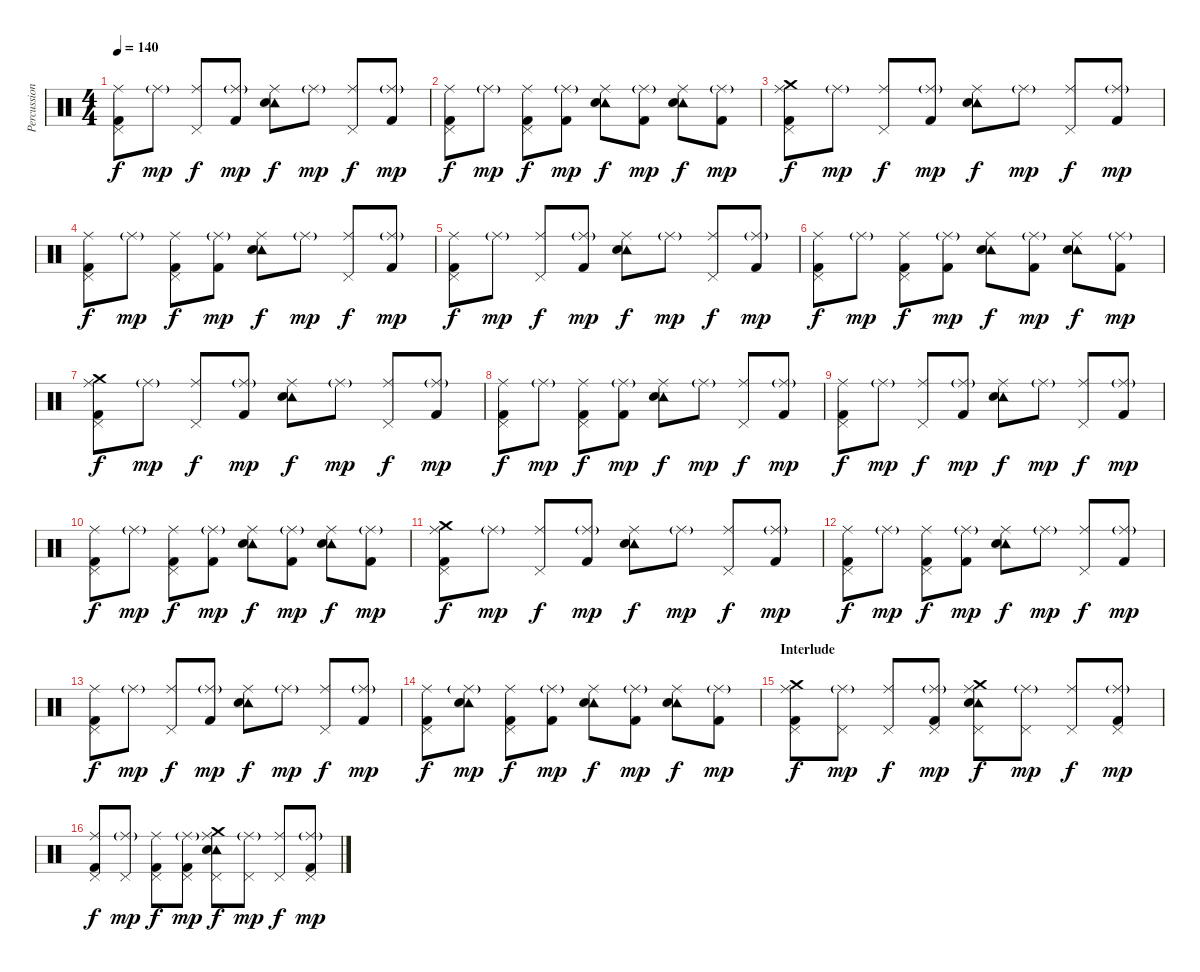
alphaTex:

\track ("Percussion" "Percussion") {instrument percussion}
\staff {score}
\articulation defaults
\ts (4 4)
\tempo 140
\clef neutral
\ks c
("Ride (middle)" "Pedal Hi-Hat (hit)" "Kick (hit) 2").8{dy f} "Ride (middle)"{g}.8{dy mp} ("Ride (middle)" "Pedal Hi-Hat (hit)").8{dy f} ("Ride (middle)"{g} "Kick (hit) 2").8{dy mp} ("Ride (middle)" "Tambourine (hit)" "Electric Snare (hit)").8{dy f} "Ride (middle)"{g}.8{dy mp} ("Ride (middle)" "Pedal Hi-Hat (hit)").8{dy f} ("Ride (middle)"{g} "Kick (hit) 2").8{dy mp} |
("Ride (middle)" "Pedal Hi-Hat (hit)" "Kick (hit) 2").8{dy f} "Ride (middle)"{g}.8{dy mp} ("Ride (middle)" "Pedal Hi-Hat (hit)" "Kick (hit) 2").8{dy f} ("Ride (middle)"{g} "Kick (hit) 2").8{dy mp} ("Ride (middle)" "Tambourine (hit)" "Electric Snare (hit)").8{dy f} ("Ride (middle)"{g} "Kick (hit) 2").8{dy mp} ("Ride (middle)" "Tambourine (hit)" "Electric Snare (hit)").8{dy f} ("Ride (middle)"{g} "Kick (hit) 2").8{dy mp} |
("Ride (middle)" "Pedal Hi-Hat (hit)" "Crash medium (hit)" "Kick (hit) 2").8{dy f} "Ride (middle)"{g}.8{dy mp} ("Ride (middle)" "Pedal Hi-Hat (hit)").8{dy f} ("Ride (middle)"{g} "Kick (hit) 2").8{dy mp} ("Ride (middle)" "Tambourine (hit)" "Electric Snare (hit)").8{dy f} "Ride (middle)"{g}.8{dy mp} ("Ride (middle)" "Pedal Hi-Hat (hit)").8{dy f} ("Ride (middle)"{g} "Kick (hit) 2").8{dy mp} |
("Ride (middle)" "Pedal Hi-Hat (hit)" "Kick (hit) 2").8{dy f} "Ride (middle)"{g}.8{dy mp} ("Ride (middle)" "Pedal Hi-Hat (hit)" "Kick (hit) 2").8{dy f} ("Ride (middle)"{g} "Kick (hit) 2").8{dy mp} ("Ride (middle)" "Tambourine (hit)" "Electric Snare (hit)").8{dy f} "Ride (middle)"{g}.8{dy mp} ("Ride (middle)" "Pedal Hi-Hat (hit)").8{dy f} ("Ride (middle)"{g} "Kick (hit) 2").8{dy mp} |
("Ride (middle)" "Pedal Hi-Hat (hit)" "Kick (hit) 2").8{dy f} "Ride (middle)"{g}.8{dy mp} ("Ride (middle)" "Pedal Hi-Hat (hit)").8{dy f} ("Ride (middle)"{g} "Kick (hit) 2").8{dy mp} ("Ride (middle)" "Tambourine (hit)" "Electric Snare (hit)").8{dy f} "Ride (middle)"{g}.8{dy mp} ("Ride (middle)" "Pedal Hi-Hat (hit)").8{dy f} ("Ride (middle)"{g} "Kick (hit) 2").8{dy mp} |
("Ride (middle)" "Pedal Hi-Hat (hit)" "Kick (hit) 2").8{dy f} "Ride (middle)"{g}.8{dy mp} ("Ride (middle)" "Pedal Hi-Hat (hit)" "Kick (hit) 2").8{dy f} ("Ride (middle)"{g} "Kick (hit) 2").8{dy mp} ("Ride (middle)" "Tambourine (hit)" "Electric Snare (hit)").8{dy f} ("Ride (middle)"{g} "Kick (hit) 2").8{dy mp} ("Ride (middle)" "Tambourine (hit)" "Electric Snare (hit)").8{dy f} ("Ride (middle)"{g} "Kick (hit) 2").8{dy mp} |
("Ride (middle)" "Pedal Hi-Hat (hit)" "Crash medium (hit)" "Kick (hit) 2").8{dy f} "Ride (middle)"{g}.8{dy mp} ("Ride (middle)" "Pedal Hi-Hat (hit)").8{dy f} ("Ride (middle)"{g} "Kick (hit) 2").8{dy mp} ("Ride (middle)" "Tambourine (hit)" "Electric Snare (hit)").8{dy f} "Ride (middle)"{g}.8{dy mp} ("Ride (middle)" "Pedal Hi-Hat (hit)").8{dy f} ("Ride (middle)"{g} "Kick (hit) 2").8{dy mp} |
("Ride (middle)" "Pedal Hi-Hat (hit)" "Kick (hit) 2").8{dy f} "Ride (middle)"{g}.8{dy mp} ("Ride (middle)" "Pedal Hi-Hat (hit)" "Kick (hit) 2").8{dy f} ("Ride (middle)"{g} "Kick (hit) 2").8{dy mp} ("Ride (middle)" "Tambourine (hit)" "Electric Snare (hit)").8{dy f} "Ride (middle)"{g}.8{dy mp} ("Ride (middle)" "Pedal Hi-Hat (hit)").8{dy f} ("Ride (middle)"{g} "Kick (hit) 2").8{dy mp} |
("Ride (middle)" "Pedal Hi-Hat (hit)" "Kick (hit) 2").8{dy f} "Ride (middle)"{g}.8{dy mp} ("Ride (middle)" "Pedal Hi-Hat (hit)").8{dy f} ("Ride (middle)"{g} "Kick (hit) 2").8{dy mp} ("Ride (middle)" "Tambourine (hit)" "Electric Snare (hit)").8{dy f} "Ride (middle)"{g}.8{dy mp} ("Ride (middle)" "Pedal Hi-Hat (hit)").8{dy f} ("Ride (middle)"{g} "Kick (hit) 2").8{dy mp} |
("Ride (middle)" "Pedal Hi-Hat (hit)" "Kick (hit) 2").8{dy f} "Ride (middle)"{g}.8{dy mp} ("Ride (middle)" "Pedal Hi-Hat (hit)" "Kick (hit) 2").8{dy f} ("Ride (middle)"{g} "Kick (hit) 2").8{dy mp} ("Ride (middle)" "Tambourine (hit)" "Electric Snare (hit)").8{dy f} ("Ride (middle)"{g} "Kick (hit) 2").8{dy mp} ("Ride (middle)" "Tambourine (hit)" "Electric Snare (hit)").8{dy f} ("Ride (middle)"{g} "Kick (hit) 2").8{dy mp} |
("Ride (middle)" "Pedal Hi-Hat (hit)" "Crash medium (hit)" "Kick (hit) 2").8{dy f} "Ride (middle)"{g}.8{dy mp} ("Ride (middle)" "Pedal Hi-Hat (hit)").8{dy f} ("Ride (middle)"{g} "Kick (hit) 2").8{dy mp} ("Ride (middle)" "Tambourine (hit)" "Electric Snare (hit)").8{dy f} "Ride (middle)"{g}.8{dy mp} ("Ride (middle)" "Pedal Hi-Hat (hit)").8{dy f} ("Ride (middle)"{g} "Kick (hit) 2").8{dy mp} |
("Ride (middle)" "Pedal Hi-Hat (hit)" "Kick (hit) 2").8{dy f} "Ride (middle)"{g}.8{dy mp} ("Ride (middle)" "Pedal Hi-Hat (hit)" "Kick (hit) 2").8{dy f} ("Ride (middle)"{g} "Kick (hit) 2").8{dy mp} ("Ride (middle)" "Tambourine (hit)" "Electric Snare (hit)").8{dy f} "Ride (middle)"{g}.8{dy mp} ("Ride (middle)" "Pedal Hi-Hat (hit)").8{dy f} ("Ride (middle)"{g} "Kick (hit) 2").8{dy mp} |
("Ride (middle)" "Pedal Hi-Hat (hit)" "Kick (hit) 2").8{dy f} "Ride (middle)"{g}.8{dy mp} ("Ride (middle)" "Pedal Hi-Hat (hit)").8{dy f} ("Ride (middle)"{g} "Kick (hit) 2").8{dy mp} ("Ride (middle)" "Tambourine (hit)" "Electric Snare (hit)").8{dy f} "Ride (middle)"{g}.8{dy mp} ("Ride (middle)" "Pedal Hi-Hat (hit)").8{dy f} ("Ride (middle)"{g} "Kick (hit) 2").8{dy mp} |
("Ride (middle)" "Pedal Hi-Hat (hit)" "Kick (hit) 2").8{dy f} ("Ride (middle)"{g} "Tambourine (hit)" "Electric Snare (hit)").8{dy mp} ("Ride (middle)" "Pedal Hi-Hat (hit)" "Kick (hit) 2").8{dy f} ("Ride (middle)"{g} "Kick (hit) 2").8{dy mp} ("Ride (middle)" "Tambourine (hit)" "Electric Snare (hit)").8{dy f} ("Ride (middle)"{g} "Kick (hit) 2").8{dy mp} ("Ride (middle)" "Tambourine (hit)" "Electric Snare (hit)").8{dy f} ("Ride (middle)"{g} "Kick (hit) 2").8{dy mp} |
\section ("" "Interlude")
("Ride (middle)" "Pedal Hi-Hat (hit)" "Crash medium (hit)" "Kick (hit) 2").8{dy f} ("Ride (middle)"{g} "Pedal Hi-Hat (hit)").8{dy mp} ("Ride (middle)" "Pedal Hi-Hat (hit)").8{dy f} ("Ride (middle)"{g} "Pedal Hi-Hat (hit)" "Kick (hit) 2").8{dy mp} ("Ride (middle)" "Pedal Hi-Hat (hit)" "Tambourine (hit)" "Electric Snare (hit)" "Crash medium (hit)").8{dy f} ("Ride (middle)"{g} "Pedal Hi-Hat (hit)").8{dy mp} ("Ride (middle)" "Pedal Hi-Hat (hit)").8{dy f} ("Ride (middle)"{g} "Pedal Hi-Hat (hit)" "Kick (hit) 2").8{dy mp} |
("Ride (middle)" "Pedal Hi-Hat (hit)" "Kick (hit) 2").8{dy f} ("Ride (middle)"{g} "Pedal Hi-Hat (hit)").8{dy mp} ("Ride (middle)" "Pedal Hi-Hat (hit)" "Kick (hit) 2").8{dy f} ("Ride (middle)"{g} "Pedal Hi-Hat (hit)" "Kick (hit) 2").8{dy mp} ("Ride (middle)" "Pedal Hi-Hat (hit)" "Tambourine (hit)" "Electric Snare (hit)" "Crash medium (hit)").8{dy f} ("Ride (middle)"{g} "Pedal Hi-Hat (hit)").8{dy mp} ("Ride (middle)" "Pedal Hi-Hat (hit)").8{dy f} ("Ride (middle)"{g} "Pedal Hi-Hat (hit)" "Kick (hit) 2").8{dy mp}
